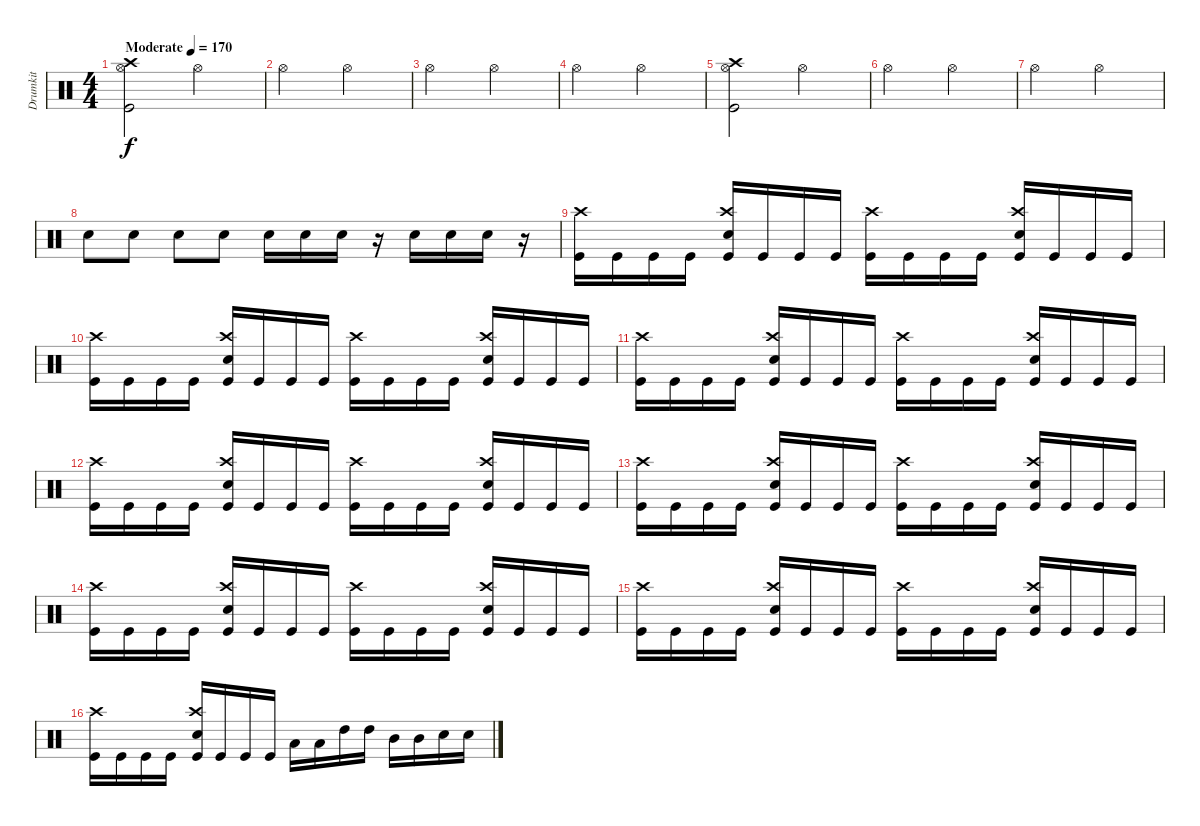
\track ("Drumkit" "Drumkit") {instrument percussion}
\staff {score}
\articulation defaults
\ts (4 4)
\tempo (170 "Moderate")
\clef neutral
\ks c
("Kick (hit)" "Crash high (hit)" "Hi-Hat (open)").2{dy f} "Hi-Hat (open)".2 |
"Hi-Hat (open)".2 "Hi-Hat (open)".2 |
"Hi-Hat (open)".2 "Hi-Hat (open)".2 |
"Hi-Hat (open)".2 "Hi-Hat (open)".2 |
("Kick (hit)" "Crash high (hit)" "Hi-Hat (open)").2 "Hi-Hat (open)".2 |
"Hi-Hat (open)".2 "Hi-Hat (open)".2 |
"Hi-Hat (open)".2 "Hi-Hat (open)".2 |
"Snare (hit) 2".8 "Snare (hit) 2".8 "Snare (hit) 2".8 "Snare (hit) 2".8 "Snare (hit) 2".16 "Snare (hit) 2".16 "Snare (hit) 2".16 r.16 "Snare (hit) 2".16 "Snare (hit) 2".16 "Snare (hit) 2".16 r.16 |
("Crash high (hit)" "Kick (hit)").16 "Kick (hit)".16 "Kick (hit)".16 "Kick (hit)".16 ("Snare (hit) 2" "Crash high (hit)" "Kick (hit)").16 "Kick (hit)".16 "Kick (hit)".16 "Kick (hit)".16 ("Crash high (hit)" "Kick (hit)").16 "Kick (hit)".16 "Kick (hit)".16 "Kick (hit)".16 ("Snare (hit) 2" "Crash high (hit)" "Kick (hit)").16 "Kick (hit)".16 "Kick (hit)".16 "Kick (hit)".16 |
("Crash high (hit)" "Kick (hit)").16 "Kick (hit)".16 "Kick (hit)".16 "Kick (hit)".16 ("Snare (hit) 2" "Crash high (hit)" "Kick (hit)").16 "Kick (hit)".16 "Kick (hit)".16 "Kick (hit)".16 ("Crash high (hit)" "Kick (hit)").16 "Kick (hit)".16 "Kick (hit)".16 "Kick (hit)".16 ("Snare (hit) 2" "Crash high (hit)" "Kick (hit)").16 "Kick (hit)".16 "Kick (hit)".16 "Kick (hit)".16 |
("Crash high (hit)" "Kick (hit)").16 "Kick (hit)".16 "Kick (hit)".16 "Kick (hit)".16 ("Snare (hit) 2" "Crash high (hit)" "Kick (hit)").16 "Kick (hit)".16 "Kick (hit)".16 "Kick (hit)".16 ("Crash high (hit)" "Kick (hit)").16 "Kick (hit)".16 "Kick (hit)".16 "Kick (hit)".16 ("Snare (hit) 2" "Crash high (hit)" "Kick (hit)").16 "Kick (hit)".16 "Kick (hit)".16 "Kick (hit)".16 |
("Crash high (hit)" "Kick (hit)").16 "Kick (hit)".16 "Kick (hit)".16 "Kick (hit)".16 ("Snare (hit) 2" "Crash high (hit)" "Kick (hit)").16 "Kick (hit)".16 "Kick (hit)".16 "Kick (hit)".16 ("Crash high (hit)" "Kick (hit)").16 "Kick (hit)".16 "Kick (hit)".16 "Kick (hit)".16 ("Snare (hit) 2" "Crash high (hit)" "Kick (hit)").16 "Kick (hit)".16 "Kick (hit)".16 "Kick (hit)".16 |
("Crash high (hit)" "Kick (hit)").16 "Kick (hit)".16 "Kick (hit)".16 "Kick (hit)".16 ("Snare (hit) 2" "Crash high (hit)" "Kick (hit)").16 "Kick (hit)".16 "Kick (hit)".16 "Kick (hit)".16 ("Crash high (hit)" "Kick (hit)").16 "Kick (hit)".16 "Kick (hit)".16 "Kick (hit)".16 ("Snare (hit) 2" "Crash high (hit)" "Kick (hit)").16 "Kick (hit)".16 "Kick (hit)".16 "Kick (hit)".16 |
("Crash high (hit)" "Kick (hit)").16 "Kick (hit)".16 "Kick (hit)".16 "Kick (hit)".16 ("Snare (hit) 2" "Crash high (hit)" "Kick (hit)").16 "Kick (hit)".16 "Kick (hit)".16 "Kick (hit)".16 ("Crash high (hit)" "Kick (hit)").16 "Kick (hit)".16 "Kick (hit)".16 "Kick (hit)".16 ("Snare (hit) 2" "Crash high (hit)" "Kick (hit)").16 "Kick (hit)".16 "Kick (hit)".16 "Kick (hit)".16 |
("Crash high (hit)" "Kick (hit)").16 "Kick (hit)".16 "Kick (hit)".16 "Kick (hit)".16 ("Snare (hit) 2" "Crash high (hit)" "Kick (hit)").16 "Kick (hit)".16 "Kick (hit)".16 "Kick (hit)".16 ("Crash high (hit)" "Kick (hit)").16 "Kick (hit)".16 "Kick (hit)".16 "Kick (hit)".16 ("Snare (hit) 2" "Crash high (hit)" "Kick (hit)").16 "Kick (hit)".16 "Kick (hit)".16 "Kick (hit)".16 |
("Crash high (hit)" "Kick (hit)").16 "Kick (hit)".16 "Kick (hit)".16 "Kick (hit)".16 ("Snare (hit) 2" "Crash high (hit)" "Kick (hit)").16 "Kick (hit)".16 "Kick (hit)".16 "Kick (hit)".16 "Low Tom (hit)".16 "Low Tom (hit)".16 "High Tom (hit)".16 "High Tom (hit)".16 "Mid Tom (hit)".16 "Mid Tom (hit)".16 "Snare (hit) 2".16 "Snare (hit) 2".16
